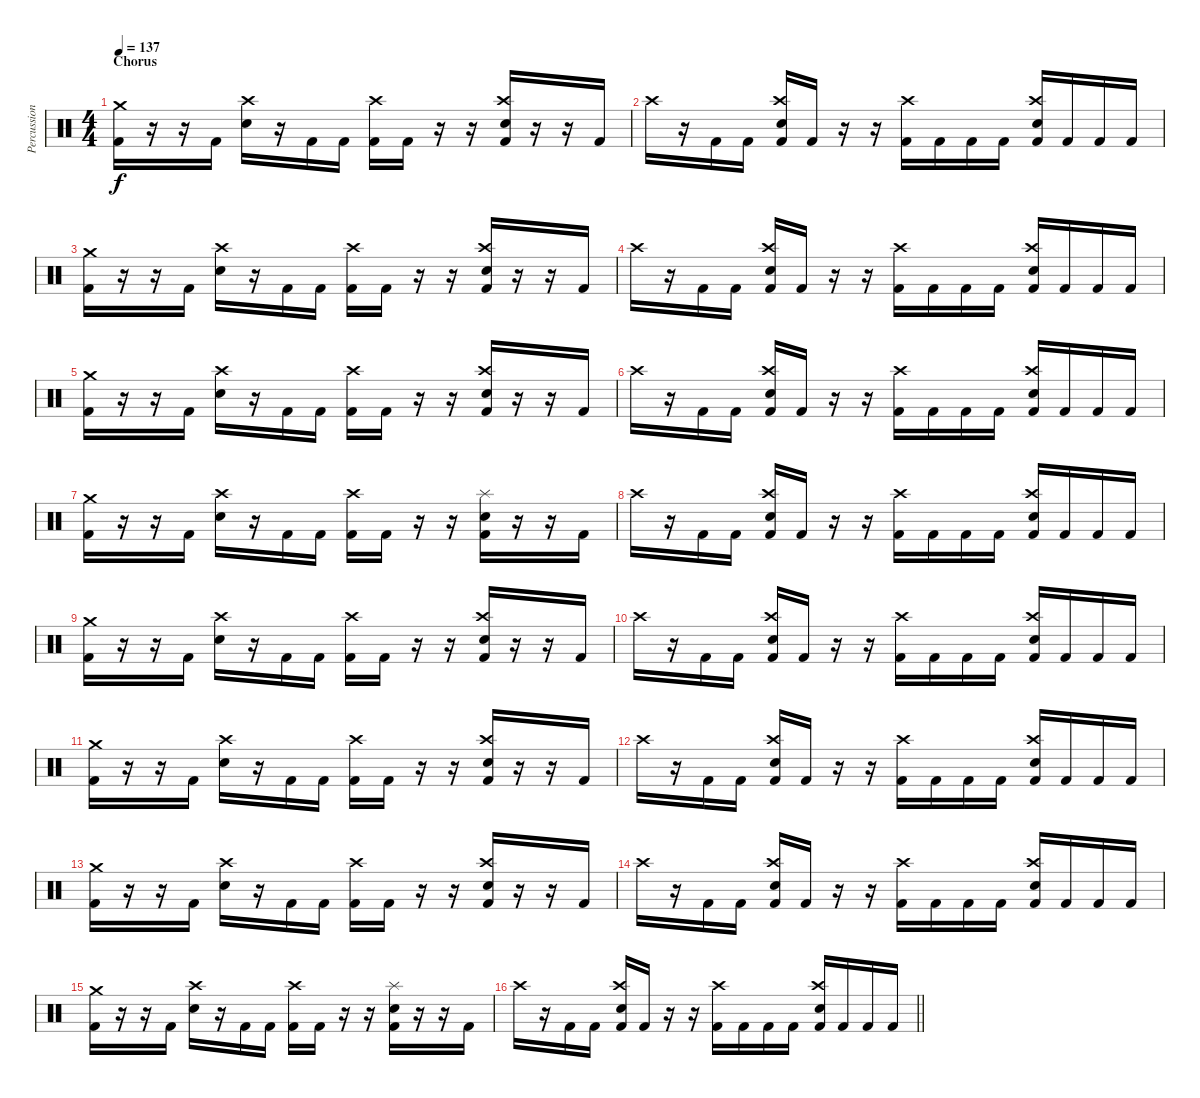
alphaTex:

\track ("Percussion" "Percussion") {instrument percussion}
\staff {score}
\articulation defaults
\ts (4 4)
\section ("" "Chorus")
\tempo 137
\clef neutral
\ks c
("Crash medium (hit)" "Kick (hit) 2").16{dy f} r.16 r.16 "Kick (hit) 2".16 ("Crash high (hit)" "Snare (hit) 2").16 r.16 "Kick (hit) 2".16 "Kick (hit) 2".16 ("Crash high (hit)" "Kick (hit) 2").16 "Kick (hit) 2".16 r.16 r.16 ("Crash high (hit)" "Snare (hit) 2" "Kick (hit) 2").16 r.16 r.16 "Kick (hit) 2".16 |
"Crash high (hit)".16 r.16 "Kick (hit) 2".16 "Kick (hit) 2".16 ("Crash high (hit)" "Snare (hit) 2" "Kick (hit) 2").16 "Kick (hit) 2".16 r.16 r.16 ("Crash high (hit)" "Kick (hit) 2").16 "Kick (hit) 2".16 "Kick (hit) 2".16 "Kick (hit) 2".16 ("Crash high (hit)" "Snare (hit) 2" "Kick (hit) 2").16 "Kick (hit) 2".16 "Kick (hit) 2".16 "Kick (hit) 2".16 |
("Crash medium (hit)" "Kick (hit) 2").16 r.16 r.16 "Kick (hit) 2".16 ("Crash high (hit)" "Snare (hit) 2").16 r.16 "Kick (hit) 2".16 "Kick (hit) 2".16 ("Crash high (hit)" "Kick (hit) 2").16 "Kick (hit) 2".16 r.16 r.16 ("Crash high (hit)" "Snare (hit) 2" "Kick (hit) 2").16 r.16 r.16 "Kick (hit) 2".16 |
"Crash high (hit)".16 r.16 "Kick (hit) 2".16 "Kick (hit) 2".16 ("Crash high (hit)" "Snare (hit) 2" "Kick (hit) 2").16 "Kick (hit) 2".16 r.16 r.16 ("Crash high (hit)" "Kick (hit) 2").16 "Kick (hit) 2".16 "Kick (hit) 2".16 "Kick (hit) 2".16 ("Crash high (hit)" "Snare (hit) 2" "Kick (hit) 2").16 "Kick (hit) 2".16 "Kick (hit) 2".16 "Kick (hit) 2".16 |
("Crash medium (hit)" "Kick (hit) 2").16 r.16 r.16 "Kick (hit) 2".16 ("Crash high (hit)" "Snare (hit) 2").16 r.16 "Kick (hit) 2".16 "Kick (hit) 2".16 ("Crash high (hit)" "Kick (hit) 2").16 "Kick (hit) 2".16 r.16 r.16 ("Crash high (hit)" "Snare (hit) 2" "Kick (hit) 2").16 r.16 r.16 "Kick (hit) 2".16 |
"Crash high (hit)".16 r.16 "Kick (hit) 2".16 "Kick (hit) 2".16 ("Crash high (hit)" "Snare (hit) 2" "Kick (hit) 2").16 "Kick (hit) 2".16 r.16 r.16 ("Crash high (hit)" "Kick (hit) 2").16 "Kick (hit) 2".16 "Kick (hit) 2".16 "Kick (hit) 2".16 ("Crash high (hit)" "Snare (hit) 2" "Kick (hit) 2").16 "Kick (hit) 2".16 "Kick (hit) 2".16 "Kick (hit) 2".16 |
("Crash medium (hit)" "Kick (hit) 2").16 r.16 r.16 "Kick (hit) 2".16 ("Crash high (hit)" "Snare (hit) 2").16 r.16 "Kick (hit) 2".16 "Kick (hit) 2".16 ("Crash high (hit)" "Kick (hit) 2").16 "Kick (hit) 2".16 r.16 r.16 ("Splash (hit)" "Snare (hit) 2" "Kick (hit) 2").16 r.16 r.16 "Kick (hit) 2".16 |
"Crash high (hit)".16 r.16 "Kick (hit) 2".16 "Kick (hit) 2".16 ("Crash high (hit)" "Snare (hit) 2" "Kick (hit) 2").16 "Kick (hit) 2".16 r.16 r.16 ("Crash high (hit)" "Kick (hit) 2").16 "Kick (hit) 2".16 "Kick (hit) 2".16 "Kick (hit) 2".16 ("Crash high (hit)" "Snare (hit) 2" "Kick (hit) 2").16 "Kick (hit) 2".16 "Kick (hit) 2".16 "Kick (hit) 2".16 |
("Crash medium (hit)" "Kick (hit) 2").16 r.16 r.16 "Kick (hit) 2".16 ("Crash high (hit)" "Snare (hit) 2").16 r.16 "Kick (hit) 2".16 "Kick (hit) 2".16 ("Crash high (hit)" "Kick (hit) 2").16 "Kick (hit) 2".16 r.16 r.16 ("Crash high (hit)" "Snare (hit) 2" "Kick (hit) 2").16 r.16 r.16 "Kick (hit) 2".16 |
"Crash high (hit)".16 r.16 "Kick (hit) 2".16 "Kick (hit) 2".16 ("Crash high (hit)" "Snare (hit) 2" "Kick (hit) 2").16 "Kick (hit) 2".16 r.16 r.16 ("Crash high (hit)" "Kick (hit) 2").16 "Kick (hit) 2".16 "Kick (hit) 2".16 "Kick (hit) 2".16 ("Crash high (hit)" "Snare (hit) 2" "Kick (hit) 2").16 "Kick (hit) 2".16 "Kick (hit) 2".16 "Kick (hit) 2".16 |
("Crash medium (hit)" "Kick (hit) 2").16 r.16 r.16 "Kick (hit) 2".16 ("Crash high (hit)" "Snare (hit) 2").16 r.16 "Kick (hit) 2".16 "Kick (hit) 2".16 ("Crash high (hit)" "Kick (hit) 2").16 "Kick (hit) 2".16 r.16 r.16 ("Crash high (hit)" "Snare (hit) 2" "Kick (hit) 2").16 r.16 r.16 "Kick (hit) 2".16 |
"Crash high (hit)".16 r.16 "Kick (hit) 2".16 "Kick (hit) 2".16 ("Crash high (hit)" "Snare (hit) 2" "Kick (hit) 2").16 "Kick (hit) 2".16 r.16 r.16 ("Crash high (hit)" "Kick (hit) 2").16 "Kick (hit) 2".16 "Kick (hit) 2".16 "Kick (hit) 2".16 ("Crash high (hit)" "Snare (hit) 2" "Kick (hit) 2").16 "Kick (hit) 2".16 "Kick (hit) 2".16 "Kick (hit) 2".16 |
("Crash medium (hit)" "Kick (hit) 2").16 r.16 r.16 "Kick (hit) 2".16 ("Crash high (hit)" "Snare (hit) 2").16 r.16 "Kick (hit) 2".16 "Kick (hit) 2".16 ("Crash high (hit)" "Kick (hit) 2").16 "Kick (hit) 2".16 r.16 r.16 ("Crash high (hit)" "Snare (hit) 2" "Kick (hit) 2").16 r.16 r.16 "Kick (hit) 2".16 |
"Crash high (hit)".16 r.16 "Kick (hit) 2".16 "Kick (hit) 2".16 ("Crash high (hit)" "Snare (hit) 2" "Kick (hit) 2").16 "Kick (hit) 2".16 r.16 r.16 ("Crash high (hit)" "Kick (hit) 2").16 "Kick (hit) 2".16 "Kick (hit) 2".16 "Kick (hit) 2".16 ("Crash high (hit)" "Snare (hit) 2" "Kick (hit) 2").16 "Kick (hit) 2".16 "Kick (hit) 2".16 "Kick (hit) 2".16 |
("Crash medium (hit)" "Kick (hit) 2").16 r.16 r.16 "Kick (hit) 2".16 ("Crash high (hit)" "Snare (hit) 2").16 r.16 "Kick (hit) 2".16 "Kick (hit) 2".16 ("Crash high (hit)" "Kick (hit) 2").16 "Kick (hit) 2".16 r.16 r.16 ("Splash (hit)" "Snare (hit) 2" "Kick (hit) 2").16 r.16 r.16 "Kick (hit) 2".16 |
\barLineRight lightlight "Crash high (hit)".16
r.16 "Kick (hit) 2".16 "Kick (hit) 2".16 ("Crash high (hit)" "Snare (hit) 2" "Kick (hit) 2").16 "Kick (hit) 2".16 r.16 r.16 ("Crash high (hit)" "Kick (hit) 2").16 "Kick (hit) 2".16 "Kick (hit) 2".16 "Kick (hit) 2".16 ("Crash high (hit)" "Snare (hit) 2" "Kick (hit) 2").16 "Kick (hit) 2".16 "Kick (hit) 2".16 "Kick (hit) 2".16
